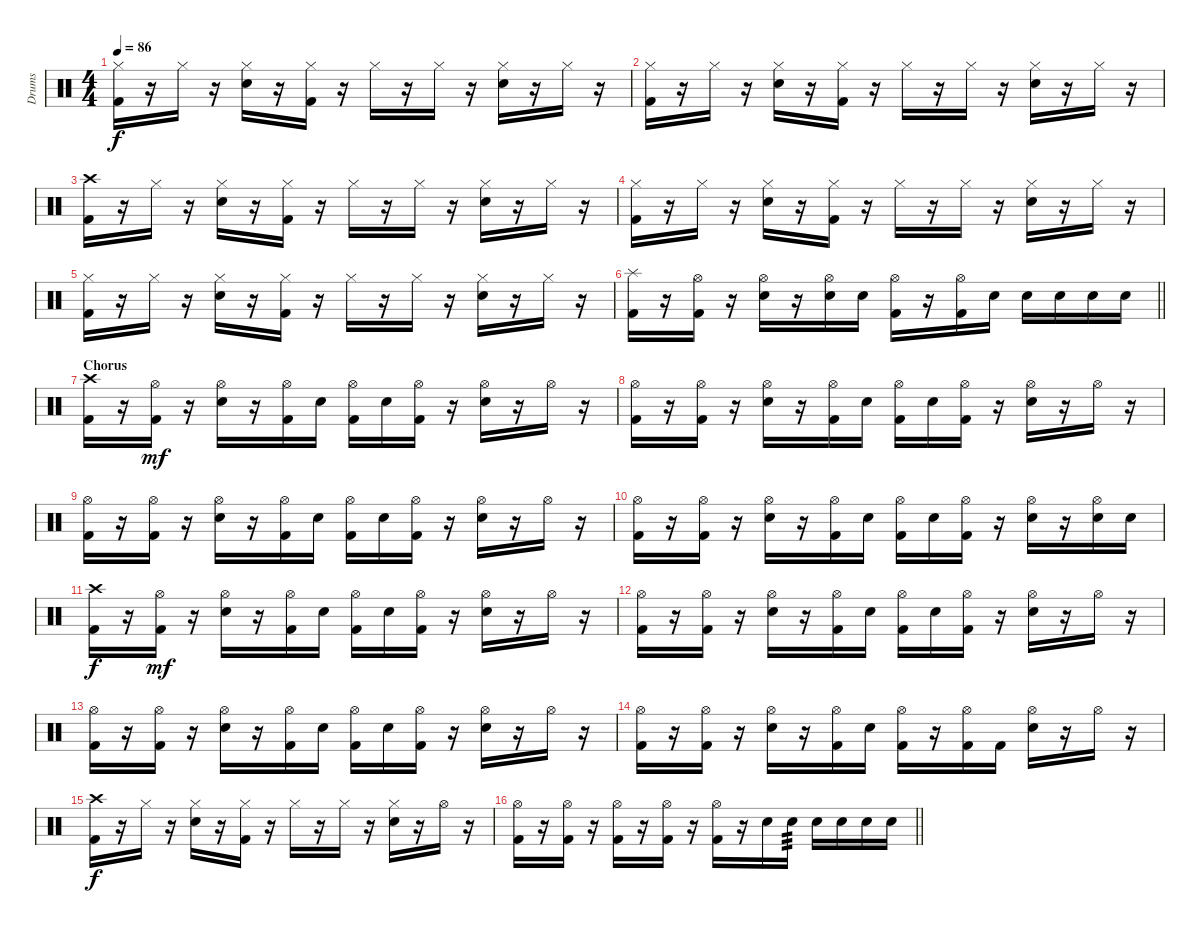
\track ("Drums" "Drums") {instrument percussion}
\staff {score}
\articulation defaults
\ts (4 4)
\tempo 86
\clef neutral
\ks c
("Hi-Hat (closed)" "Kick (hit) 2").16{dy f} r.16 "Hi-Hat (closed)".16 r.16 ("Hi-Hat (closed)" "Electric Snare (hit)").16 r.16 ("Hi-Hat (closed)" "Kick (hit) 2").16 r.16 "Hi-Hat (closed)".16 r.16 "Hi-Hat (closed)".16 r.16 ("Hi-Hat (closed)" "Electric Snare (hit)").16 r.16 "Hi-Hat (closed)".16 r.16 |
("Hi-Hat (closed)" "Kick (hit) 2").16 r.16 "Hi-Hat (closed)".16 r.16 ("Hi-Hat (closed)" "Electric Snare (hit)").16 r.16 ("Hi-Hat (closed)" "Kick (hit) 2").16 r.16 "Hi-Hat (closed)".16 r.16 "Hi-Hat (closed)".16 r.16 ("Hi-Hat (closed)" "Electric Snare (hit)").16 r.16 "Hi-Hat (closed)".16 r.16 |
("Crash high (hit)" "Kick (hit) 2").16 r.16 "Hi-Hat (closed)".16 r.16 ("Hi-Hat (closed)" "Electric Snare (hit)").16 r.16 ("Hi-Hat (closed)" "Kick (hit) 2").16 r.16 "Hi-Hat (closed)".16 r.16 "Hi-Hat (closed)".16 r.16 ("Hi-Hat (closed)" "Electric Snare (hit)").16 r.16 "Hi-Hat (closed)".16 r.16 |
("Hi-Hat (closed)" "Kick (hit) 2").16 r.16 "Hi-Hat (closed)".16 r.16 ("Hi-Hat (closed)" "Electric Snare (hit)").16 r.16 ("Hi-Hat (closed)" "Kick (hit) 2").16 r.16 "Hi-Hat (closed)".16 r.16 "Hi-Hat (closed)".16 r.16 ("Hi-Hat (closed)" "Electric Snare (hit)").16 r.16 "Hi-Hat (closed)".16 r.16 |
("Hi-Hat (closed)" "Kick (hit) 2").16 r.16 "Hi-Hat (closed)".16 r.16 ("Hi-Hat (closed)" "Electric Snare (hit)").16 r.16 ("Hi-Hat (closed)" "Kick (hit) 2").16 r.16 "Hi-Hat (closed)".16 r.16 "Hi-Hat (closed)".16 r.16 ("Hi-Hat (closed)" "Electric Snare (hit)").16 r.16 "Hi-Hat (closed)".16 r.16 |
\barLineRight lightlight
("Splash (hit)" "Kick (hit) 2").16 r.16 ("Hi-Hat (open)" "Kick (hit) 2").16 r.16 ("Hi-Hat (open)" "Electric Snare (hit)").16 r.16 ("Hi-Hat (open)" "Electric Snare (hit)").16 "Electric Snare (hit)".16 ("Hi-Hat (open)" "Kick (hit) 2").16 r.16 ("Hi-Hat (open)" "Kick (hit) 2").16 "Electric Snare (hit)".16 "Electric Snare (hit)".16 "Electric Snare (hit)".16 "Electric Snare (hit)".16 "Electric Snare (hit)".16 |
\section ("" "Chorus")
("Crash high (hit)" "Kick (hit) 2").16 r.16 ("Hi-Hat (open)" "Kick (hit) 2").16{dy mf} r.16 ("Hi-Hat (open)" "Electric Snare (hit)").16 r.16 ("Hi-Hat (open)" "Kick (hit) 2").16 "Electric Snare (hit)".16 ("Hi-Hat (open)" "Kick (hit) 2").16 "Electric Snare (hit)".16 ("Hi-Hat (open)" "Kick (hit) 2").16 r.16 ("Hi-Hat (open)" "Electric Snare (hit)").16 r.16 "Hi-Hat (open)".16 r.16 |
("Hi-Hat (open)" "Kick (hit) 2").16 r.16 ("Hi-Hat (open)" "Kick (hit) 2").16 r.16 ("Hi-Hat (open)" "Electric Snare (hit)").16 r.16 ("Hi-Hat (open)" "Kick (hit) 2").16 "Electric Snare (hit)".16 ("Hi-Hat (open)" "Kick (hit) 2").16 "Electric Snare (hit)".16 ("Hi-Hat (open)" "Kick (hit) 2").16 r.16 ("Hi-Hat (open)" "Electric Snare (hit)").16 r.16 "Hi-Hat (open)".16 r.16 |
("Hi-Hat (open)" "Kick (hit) 2").16 r.16 ("Hi-Hat (open)" "Kick (hit) 2").16 r.16 ("Hi-Hat (open)" "Electric Snare (hit)").16 r.16 ("Hi-Hat (open)" "Kick (hit) 2").16 "Electric Snare (hit)".16 ("Hi-Hat (open)" "Kick (hit) 2").16 "Electric Snare (hit)".16 ("Hi-Hat (open)" "Kick (hit) 2").16 r.16 ("Hi-Hat (open)" "Electric Snare (hit)").16 r.16 "Hi-Hat (open)".16 r.16 |
("Hi-Hat (open)" "Kick (hit) 2").16 r.16 ("Hi-Hat (open)" "Kick (hit) 2").16 r.16 ("Hi-Hat (open)" "Electric Snare (hit)").16 r.16 ("Hi-Hat (open)" "Kick (hit) 2").16 "Electric Snare (hit)".16 ("Hi-Hat (open)" "Kick (hit) 2").16 "Electric Snare (hit)".16 ("Hi-Hat (open)" "Kick (hit) 2").16 r.16 ("Hi-Hat (open)" "Electric Snare (hit)").16 r.16 ("Hi-Hat (open)" "Electric Snare (hit)").16 "Electric Snare (hit)".16 |
("Crash high (hit)" "Kick (hit) 2").16{dy f} r.16 ("Hi-Hat (open)" "Kick (hit) 2").16{dy mf} r.16 ("Hi-Hat (open)" "Electric Snare (hit)").16 r.16 ("Hi-Hat (open)" "Kick (hit) 2").16 "Electric Snare (hit)".16 ("Hi-Hat (open)" "Kick (hit) 2").16 "Electric Snare (hit)".16 ("Hi-Hat (open)" "Kick (hit) 2").16 r.16 ("Hi-Hat (open)" "Electric Snare (hit)").16 r.16 "Hi-Hat (open)".16 r.16 |
("Hi-Hat (open)" "Kick (hit) 2").16 r.16 ("Hi-Hat (open)" "Kick (hit) 2").16 r.16 ("Hi-Hat (open)" "Electric Snare (hit)").16 r.16 ("Hi-Hat (open)" "Kick (hit) 2").16 "Electric Snare (hit)".16 ("Hi-Hat (open)" "Kick (hit) 2").16 "Electric Snare (hit)".16 ("Hi-Hat (open)" "Kick (hit) 2").16 r.16 ("Hi-Hat (open)" "Electric Snare (hit)").16 r.16 "Hi-Hat (open)".16 r.16 |
("Hi-Hat (open)" "Kick (hit) 2").16 r.16 ("Hi-Hat (open)" "Kick (hit) 2").16 r.16 ("Hi-Hat (open)" "Electric Snare (hit)").16 r.16 ("Hi-Hat (open)" "Kick (hit) 2").16 "Electric Snare (hit)".16 ("Hi-Hat (open)" "Kick (hit) 2").16 "Electric Snare (hit)".16 ("Hi-Hat (open)" "Kick (hit) 2").16 r.16 ("Hi-Hat (open)" "Electric Snare (hit)").16 r.16 "Hi-Hat (open)".16 r.16 |
("Hi-Hat (open)" "Kick (hit) 2").16 r.16 ("Hi-Hat (open)" "Kick (hit) 2").16 r.16 ("Hi-Hat (open)" "Electric Snare (hit)").16 r.16 ("Hi-Hat (open)" "Kick (hit) 2").16 "Electric Snare (hit)".16 ("Hi-Hat (open)" "Kick (hit) 2").16 r.16 ("Hi-Hat (open)" "Kick (hit) 2").16 "Kick (hit) 2".16 ("Hi-Hat (open)" "Electric Snare (hit)").16 r.16 "Hi-Hat (open)".16 r.16 |
("Crash high (hit)" "Kick (hit) 2").16{dy f} r.16 "Hi-Hat (closed)".16 r.16 ("Hi-Hat (closed)" "Electric Snare (hit)").16 r.16 ("Hi-Hat (closed)" "Kick (hit) 2").16 r.16 "Hi-Hat (closed)".16 r.16 "Hi-Hat (closed)".16 r.16 ("Hi-Hat (closed)" "Electric Snare (hit)").16 r.16 "Hi-Hat (open)".16 r.16 |
\barLineRight lightlight
("Hi-Hat (open)" "Kick (hit) 2").16 r.16 ("Hi-Hat (open)" "Kick (hit) 2").16 r.16 ("Hi-Hat (open)" "Kick (hit) 2").16 r.16 ("Hi-Hat (open)" "Kick (hit) 2").16 r.16 ("Hi-Hat (open)" "Kick (hit) 2").16 r.16 "Electric Snare (hit)".16 "Electric Snare (hit)".16{tp 3} "Electric Snare (hit)".16 "Electric Snare (hit)".16 "Electric Snare (hit)".16 "Electric Snare (hit)".16
